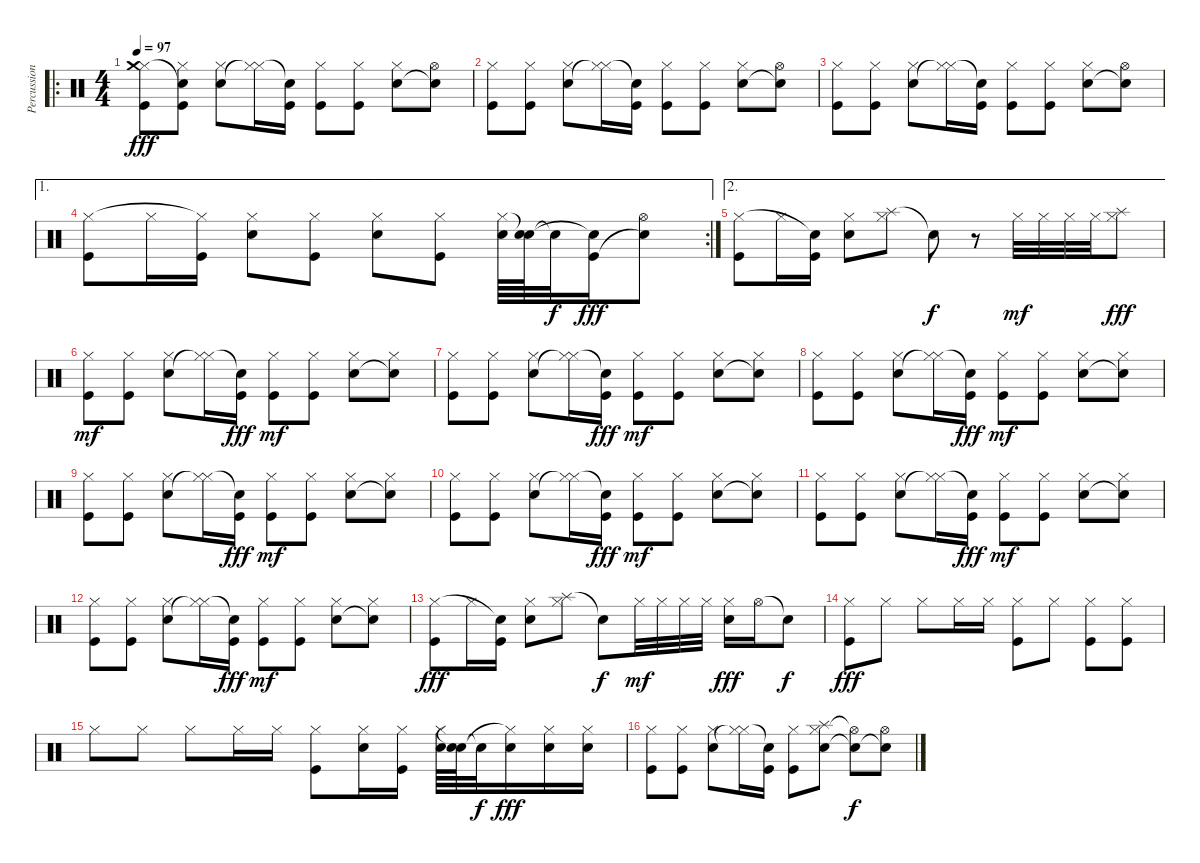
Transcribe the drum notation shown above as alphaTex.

\track ("Percussions" "Percussion") {instrument percussion}
\staff {score}
\articulation defaults
\ro
\ts (4 4)
\tempo 97
\clef neutral
\ks c
("Kick (hit)" "Hi-Hat (closed)" "Crash medium (hit)").8{dy fff} ("Kick (hit)" "Hi-Hat (closed)" "Snare (hit)"{t}).8 ("Snare (hit) 2" "Hi-Hat (closed)").8 ("Hi-Hat (closed)"{t} "Hi-Hat (closed)").16 ("Kick (hit)" "Snare (hit)"{t}).16 ("Kick (hit)" "Hi-Hat (closed)").8 ("Kick (hit)" "Hi-Hat (closed)").8 ("Snare (hit) 2" "Hi-Hat (closed)").8 ("Snare (hit)"{t} "Hi-Hat (open)").8 |
("Kick (hit)" "Hi-Hat (closed)").8 ("Kick (hit)" "Hi-Hat (closed)").8 ("Snare (hit) 2" "Hi-Hat (closed)").8 ("Hi-Hat (closed)"{t} "Hi-Hat (closed)").16 ("Kick (hit)" "Snare (hit)"{t}).16 ("Kick (hit)" "Hi-Hat (closed)").8 ("Kick (hit)" "Hi-Hat (closed)").8 ("Snare (hit) 2" "Hi-Hat (closed)").8 ("Snare (hit)"{t} "Hi-Hat (open)").8 |
("Kick (hit)" "Hi-Hat (closed)").8 ("Kick (hit)" "Hi-Hat (closed)").8 ("Snare (hit) 2" "Hi-Hat (closed)").8 ("Hi-Hat (closed)"{t} "Hi-Hat (closed)").16 ("Kick (hit)" "Snare (hit)"{t}).16 ("Kick (hit)" "Hi-Hat (closed)").8 ("Kick (hit)" "Hi-Hat (closed)").8 ("Snare (hit) 2" "Hi-Hat (closed)").8 ("Snare (hit)"{t} "Hi-Hat (open)").8 |
\ae 1
\rc 2
("Kick (hit)" "Hi-Hat (closed)").8 "Hi-Hat (closed)".16 ("Kick (hit)" "Hi-Hat (closed)"{t}).16 ("Snare (hit) 2" "Hi-Hat (closed)").8 ("Kick (hit)" "Hi-Hat (closed)").8 ("Snare (hit) 2" "Hi-Hat (closed)").8 ("Kick (hit)" "Hi-Hat (closed)").8 ("Snare (hit) 2" "Hi-Hat (closed)").64 ("Snare (hit) 2" "Snare (hit)"{t}).64 "Snare (hit)"{t}.32{dy f} ("Kick (hit)" "Snare (hit)"{t}).16{dy fff} ("Snare (hit)"{t} "Hi-Hat (open)").8 |
\ae 2
("Kick (hit)" "Hi-Hat (closed)").8 "Hi-Hat (closed)".16 ("Kick (hit)" "Snare (hit)"{t}).16 ("Snare (hit) 2" "Hi-Hat (closed)").8 ("Splash (hit)" "Hi-Hat (closed)").8 "Snare (hit)"{t}.8{dy f} r.8 "Hi-Hat (closed)".32{dy mf} "Hi-Hat (closed)".32 "Hi-Hat (closed)".32 "Hi-Hat (closed)".32 ("Splash (hit)" "Hi-Hat (closed)").8{dy fff} |
("Kick (hit)" "Hi-Hat (closed)").8{dy mf} ("Kick (hit)" "Hi-Hat (closed)").8 ("Snare (hit) 2" "Hi-Hat (closed)").8 ("Hi-Hat (closed)"{t} "Hi-Hat (closed)").16 ("Kick (hit)" "Snare (hit)"{t}).16{dy fff} ("Kick (hit)" "Hi-Hat (closed)").8{dy mf} ("Kick (hit)" "Hi-Hat (closed)").8 ("Snare (hit) 2" "Hi-Hat (closed)").8 ("Snare (hit)"{t} "Hi-Hat (closed)").8 |
("Kick (hit)" "Hi-Hat (closed)").8 ("Kick (hit)" "Hi-Hat (closed)").8 ("Snare (hit) 2" "Hi-Hat (closed)").8 ("Hi-Hat (closed)"{t} "Hi-Hat (closed)").16 ("Kick (hit)" "Snare (hit)"{t}).16{dy fff} ("Kick (hit)" "Hi-Hat (closed)").8{dy mf} ("Kick (hit)" "Hi-Hat (closed)").8 ("Snare (hit) 2" "Hi-Hat (closed)").8 ("Snare (hit)"{t} "Hi-Hat (closed)").8 |
("Kick (hit)" "Hi-Hat (closed)").8 ("Kick (hit)" "Hi-Hat (closed)").8 ("Snare (hit) 2" "Hi-Hat (closed)").8 ("Hi-Hat (closed)"{t} "Hi-Hat (closed)").16 ("Kick (hit)" "Snare (hit)"{t}).16{dy fff} ("Kick (hit)" "Hi-Hat (closed)").8{dy mf} ("Kick (hit)" "Hi-Hat (closed)").8 ("Snare (hit) 2" "Hi-Hat (closed)").8 ("Snare (hit)"{t} "Hi-Hat (closed)").8 |
("Kick (hit)" "Hi-Hat (closed)").8 ("Kick (hit)" "Hi-Hat (closed)").8 ("Snare (hit) 2" "Hi-Hat (closed)").8 ("Hi-Hat (closed)"{t} "Hi-Hat (closed)").16 ("Kick (hit)" "Snare (hit)"{t}).16{dy fff} ("Kick (hit)" "Hi-Hat (closed)").8{dy mf} ("Kick (hit)" "Hi-Hat (closed)").8 ("Snare (hit) 2" "Hi-Hat (closed)").8 ("Snare (hit)"{t} "Hi-Hat (closed)").8 |
("Kick (hit)" "Hi-Hat (closed)").8 ("Kick (hit)" "Hi-Hat (closed)").8 ("Snare (hit) 2" "Hi-Hat (closed)").8 ("Hi-Hat (closed)"{t} "Hi-Hat (closed)").16 ("Kick (hit)" "Snare (hit)"{t}).16{dy fff} ("Kick (hit)" "Hi-Hat (closed)").8{dy mf} ("Kick (hit)" "Hi-Hat (closed)").8 ("Snare (hit) 2" "Hi-Hat (closed)").8 ("Snare (hit)"{t} "Hi-Hat (closed)").8 |
("Kick (hit)" "Hi-Hat (closed)").8 ("Kick (hit)" "Hi-Hat (closed)").8 ("Snare (hit) 2" "Hi-Hat (closed)").8 ("Hi-Hat (closed)"{t} "Hi-Hat (closed)").16 ("Kick (hit)" "Snare (hit)"{t}).16{dy fff} ("Kick (hit)" "Hi-Hat (closed)").8{dy mf} ("Kick (hit)" "Hi-Hat (closed)").8 ("Snare (hit) 2" "Hi-Hat (closed)").8 ("Snare (hit)"{t} "Hi-Hat (closed)").8 |
("Kick (hit)" "Hi-Hat (closed)").8 ("Kick (hit)" "Hi-Hat (closed)").8 ("Snare (hit) 2" "Hi-Hat (closed)").8 ("Hi-Hat (closed)"{t} "Hi-Hat (closed)").16 ("Kick (hit)" "Snare (hit)"{t}).16{dy fff} ("Kick (hit)" "Hi-Hat (closed)").8{dy mf} ("Kick (hit)" "Hi-Hat (closed)").8 ("Snare (hit) 2" "Hi-Hat (closed)").8 ("Snare (hit)"{t} "Hi-Hat (closed)").8 |
("Kick (hit)" "Hi-Hat (closed)").8{dy fff} "Hi-Hat (closed)".16 ("Kick (hit)" "Snare (hit)"{t}).16 ("Snare (hit) 2" "Hi-Hat (closed)").8 ("Splash (hit)" "Hi-Hat (closed)").8 "Snare (hit)"{t}.8{dy f} "Hi-Hat (closed)".32{dy mf} "Hi-Hat (closed)".32 "Hi-Hat (closed)".32 "Hi-Hat (closed)".32 ("Snare (hit) 2" "Hi-Hat (closed)").16{dy fff} "Hi-Hat (open)".16 "Snare (hit)"{t}.8{dy f} |
("Kick (hit)" "Hi-Hat (closed)").8{dy fff} "Hi-Hat (closed)".8 "Hi-Hat (closed)".8 "Hi-Hat (closed)".16 "Hi-Hat (closed)".16 ("Kick (hit)" "Hi-Hat (closed)").8 "Hi-Hat (closed)".8 ("Kick (hit)" "Hi-Hat (closed)").8 ("Kick (hit)" "Hi-Hat (closed)").8 |
"Hi-Hat (closed)".8 "Hi-Hat (closed)".8 "Hi-Hat (closed)".8 "Hi-Hat (closed)".16 "Hi-Hat (closed)".16 ("Kick (hit)" "Hi-Hat (closed)").8 ("Snare (hit) 2" "Hi-Hat (closed)").16 ("Kick (hit)" "Hi-Hat (closed)").16 ("Snare (hit) 2" "Hi-Hat (closed)").64 ("Snare (hit) 2" "Snare (hit)"{t}).64 "Snare (hit)"{t}.32{dy f} ("Snare (hit) 2" "Hi-Hat (closed)"{t}).16{dy fff} ("Snare (hit) 2" "Hi-Hat (closed)").16 ("Snare (hit) 2" "Hi-Hat (closed)").16 |
("Kick (hit)" "Hi-Hat (closed)").8 ("Kick (hit)" "Hi-Hat (closed)").8 ("Snare (hit) 2" "Hi-Hat (closed)").8 ("Hi-Hat (closed)"{t} "Hi-Hat (closed)").16 ("Kick (hit)" "Snare (hit)"{t}).16 ("Kick (hit)" "Hi-Hat (closed)").8 ("Snare (hit) 2" "Hi-Hat (closed)" "Splash (hit)").8 ("Snare (hit) 2"{t} "Hi-Hat (open)"{t}).8{dy f} ("Snare (hit)"{t} "Hi-Hat (open)").8
